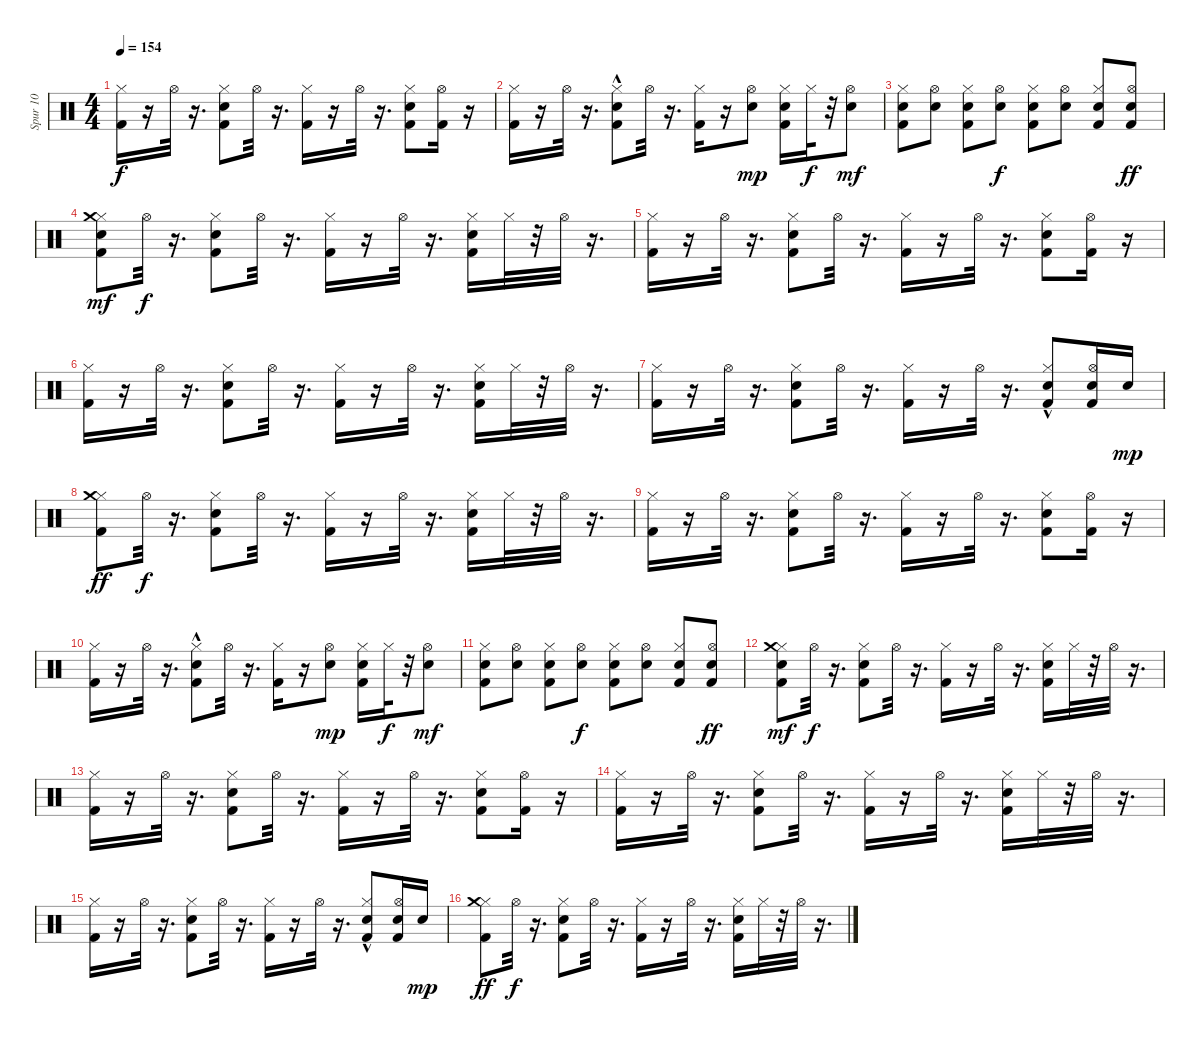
\track ("Spur 10" "Spur 10") {instrument percussion}
\staff {score}
\articulation defaults
\ts (4 4)
\tempo 154
\clef neutral
\ks c
("Kick (hit) 2" "Hi-Hat (closed)").16{dy f} r.16 "Hi-Hat (open)".32 r.16{d} ("Kick (hit) 2" "Snare (hit) 2" "Hi-Hat (closed)").8 "Hi-Hat (open)".32 r.16{d} ("Kick (hit) 2" "Hi-Hat (closed)").16 r.16 "Hi-Hat (open)".32 r.16{d} ("Kick (hit) 2" "Snare (hit) 2" "Hi-Hat (closed)").8 ("Kick (hit) 2" "Hi-Hat (open)").16 r.16 |
("Kick (hit) 2" "Hi-Hat (closed)").16 r.16 "Hi-Hat (open)".32 r.16{d} ("Kick (hit) 2" "Snare (hit) 2"{hac} "Hi-Hat (closed)").8 "Hi-Hat (open)".32 r.16{d} ("Kick (hit) 2" "Hi-Hat (closed)").16 r.16 ("Snare (hit) 2" "Hi-Hat (open)").8{dy mp} ("Kick (hit) 2" "Snare (hit) 2" "Hi-Hat (closed)").16 "Hi-Hat (closed)".32{dy f} r.32 ("Snare (hit) 2" "Hi-Hat (open)").8{dy mf} |
("Kick (hit) 2" "Snare (hit) 2" "Hi-Hat (closed)").8 ("Snare (hit) 2" "Hi-Hat (open)").8 ("Kick (hit) 2" "Snare (hit) 2" "Hi-Hat (closed)").8 ("Snare (hit) 2" "Hi-Hat (open)").8{dy f} ("Kick (hit) 2" "Snare (hit) 2" "Hi-Hat (closed)").8 ("Snare (hit) 2" "Hi-Hat (open)").8 ("Kick (hit) 2" "Snare (hit) 2" "Hi-Hat (closed)").8 ("Kick (hit) 2" "Snare (hit) 2" "Hi-Hat (open)").8{dy ff} |
("Kick (hit) 2" "Snare (hit) 2" "Hi-Hat (closed)" "Crash medium (hit)").8{dy mf} "Hi-Hat (open)".32{dy f} r.16{d} ("Kick (hit) 2" "Snare (hit) 2" "Hi-Hat (closed)").8 "Hi-Hat (open)".32 r.16{d} ("Kick (hit) 2" "Hi-Hat (closed)").16 r.16 "Hi-Hat (open)".32 r.16{d} ("Kick (hit) 2" "Snare (hit) 2" "Hi-Hat (closed)").16 "Hi-Hat (closed)".32 r.32 "Hi-Hat (open)".32 r.16{d} |
("Kick (hit) 2" "Hi-Hat (closed)").16 r.16 "Hi-Hat (open)".32 r.16{d} ("Kick (hit) 2" "Snare (hit) 2" "Hi-Hat (closed)").8 "Hi-Hat (open)".32 r.16{d} ("Kick (hit) 2" "Hi-Hat (closed)").16 r.16 "Hi-Hat (open)".32 r.16{d} ("Kick (hit) 2" "Snare (hit) 2" "Hi-Hat (closed)").8 ("Kick (hit) 2" "Hi-Hat (open)").16 r.16 |
("Kick (hit) 2" "Hi-Hat (closed)").16 r.16 "Hi-Hat (open)".32 r.16{d} ("Kick (hit) 2" "Snare (hit) 2" "Hi-Hat (closed)").8 "Hi-Hat (open)".32 r.16{d} ("Kick (hit) 2" "Hi-Hat (closed)").16 r.16 "Hi-Hat (open)".32 r.16{d} ("Kick (hit) 2" "Snare (hit) 2" "Hi-Hat (closed)").16 "Hi-Hat (closed)".32 r.32 "Hi-Hat (open)".32 r.16{d} |
("Kick (hit) 2" "Hi-Hat (closed)").16 r.16 "Hi-Hat (open)".32 r.16{d} ("Kick (hit) 2" "Snare (hit) 2" "Hi-Hat (closed)").8 "Hi-Hat (open)".32 r.16{d} ("Kick (hit) 2" "Hi-Hat (closed)").16 r.16 "Hi-Hat (open)".32 r.16{d} ("Kick (hit) 2" "Snare (hit) 2"{hac} "Hi-Hat (closed)").8 ("Electric Snare (hit)" "Kick (hit) 2" "Hi-Hat (open)").16 "Snare (hit) 2".16{dy mp} |
("Kick (hit) 2" "Hi-Hat (closed)" "Crash medium (hit)").8{dy ff} "Hi-Hat (open)".32{dy f} r.16{d} ("Kick (hit) 2" "Snare (hit) 2" "Hi-Hat (closed)").8 "Hi-Hat (open)".32 r.16{d} ("Kick (hit) 2" "Hi-Hat (closed)").16 r.16 "Hi-Hat (open)".32 r.16{d} ("Kick (hit) 2" "Snare (hit) 2" "Hi-Hat (closed)").16 "Hi-Hat (closed)".32 r.32 "Hi-Hat (open)".32 r.16{d} |
("Kick (hit) 2" "Hi-Hat (closed)").16 r.16 "Hi-Hat (open)".32 r.16{d} ("Kick (hit) 2" "Snare (hit) 2" "Hi-Hat (closed)").8 "Hi-Hat (open)".32 r.16{d} ("Kick (hit) 2" "Hi-Hat (closed)").16 r.16 "Hi-Hat (open)".32 r.16{d} ("Kick (hit) 2" "Snare (hit) 2" "Hi-Hat (closed)").8 ("Kick (hit) 2" "Hi-Hat (open)").16 r.16 |
("Kick (hit) 2" "Hi-Hat (closed)").16 r.16 "Hi-Hat (open)".32 r.16{d} ("Kick (hit) 2" "Snare (hit) 2"{hac} "Hi-Hat (closed)").8 "Hi-Hat (open)".32 r.16{d} ("Kick (hit) 2" "Hi-Hat (closed)").16 r.16 ("Snare (hit) 2" "Hi-Hat (open)").8{dy mp} ("Kick (hit) 2" "Snare (hit) 2" "Hi-Hat (closed)").16 "Hi-Hat (closed)".32{dy f} r.32 ("Snare (hit) 2" "Hi-Hat (open)").8{dy mf} |
("Kick (hit) 2" "Snare (hit) 2" "Hi-Hat (closed)").8 ("Snare (hit) 2" "Hi-Hat (open)").8 ("Kick (hit) 2" "Snare (hit) 2" "Hi-Hat (closed)").8 ("Snare (hit) 2" "Hi-Hat (open)").8{dy f} ("Kick (hit) 2" "Snare (hit) 2" "Hi-Hat (closed)").8 ("Snare (hit) 2" "Hi-Hat (open)").8 ("Kick (hit) 2" "Snare (hit) 2" "Hi-Hat (closed)").8 ("Kick (hit) 2" "Snare (hit) 2" "Hi-Hat (open)").8{dy ff} |
("Kick (hit) 2" "Snare (hit) 2" "Hi-Hat (closed)" "Crash medium (hit)").8{dy mf} "Hi-Hat (open)".32{dy f} r.16{d} ("Kick (hit) 2" "Snare (hit) 2" "Hi-Hat (closed)").8 "Hi-Hat (open)".32 r.16{d} ("Kick (hit) 2" "Hi-Hat (closed)").16 r.16 "Hi-Hat (open)".32 r.16{d} ("Kick (hit) 2" "Snare (hit) 2" "Hi-Hat (closed)").16 "Hi-Hat (closed)".32 r.32 "Hi-Hat (open)".32 r.16{d} |
("Kick (hit) 2" "Hi-Hat (closed)").16 r.16 "Hi-Hat (open)".32 r.16{d} ("Kick (hit) 2" "Snare (hit) 2" "Hi-Hat (closed)").8 "Hi-Hat (open)".32 r.16{d} ("Kick (hit) 2" "Hi-Hat (closed)").16 r.16 "Hi-Hat (open)".32 r.16{d} ("Kick (hit) 2" "Snare (hit) 2" "Hi-Hat (closed)").8 ("Kick (hit) 2" "Hi-Hat (open)").16 r.16 |
("Kick (hit) 2" "Hi-Hat (closed)").16 r.16 "Hi-Hat (open)".32 r.16{d} ("Kick (hit) 2" "Snare (hit) 2" "Hi-Hat (closed)").8 "Hi-Hat (open)".32 r.16{d} ("Kick (hit) 2" "Hi-Hat (closed)").16 r.16 "Hi-Hat (open)".32 r.16{d} ("Kick (hit) 2" "Snare (hit) 2" "Hi-Hat (closed)").16 "Hi-Hat (closed)".32 r.32 "Hi-Hat (open)".32 r.16{d} |
("Kick (hit) 2" "Hi-Hat (closed)").16 r.16 "Hi-Hat (open)".32 r.16{d} ("Kick (hit) 2" "Snare (hit) 2" "Hi-Hat (closed)").8 "Hi-Hat (open)".32 r.16{d} ("Kick (hit) 2" "Hi-Hat (closed)").16 r.16 "Hi-Hat (open)".32 r.16{d} ("Kick (hit) 2" "Snare (hit) 2"{hac} "Hi-Hat (closed)").8 ("Electric Snare (hit)" "Kick (hit) 2" "Hi-Hat (open)").16 "Snare (hit) 2".16{dy mp} |
("Kick (hit) 2" "Hi-Hat (closed)" "Crash medium (hit)").8{dy ff} "Hi-Hat (open)".32{dy f} r.16{d} ("Kick (hit) 2" "Snare (hit) 2" "Hi-Hat (closed)").8 "Hi-Hat (open)".32 r.16{d} ("Kick (hit) 2" "Hi-Hat (closed)").16 r.16 "Hi-Hat (open)".32 r.16{d} ("Kick (hit) 2" "Snare (hit) 2" "Hi-Hat (closed)").16 "Hi-Hat (closed)".32 r.32 "Hi-Hat (open)".32 r.16{d}
